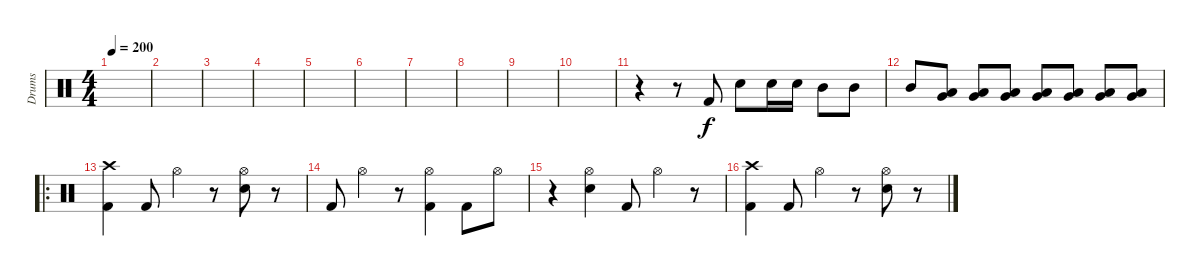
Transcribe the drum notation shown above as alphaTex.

\track ("Drums" "Drums") {instrument percussion}
\staff {score}
\articulation defaults
\ts (4 4)
\tempo 200
\clef neutral
\ks c
|
|
|
|
|
|
|
|
|
|
r.4 r.8 "Kick (hit) 2".8 "Snare (hit) 2".8 "Snare (hit) 2".16 "Snare (hit) 2".16 "Mid Tom (hit)".8 "Mid Tom (hit)".8 |
"Mid Tom (hit)".8 ("Low Tom (hit)" "Very Low Tom (hit)").8 ("Low Tom (hit)" "Very Low Tom (hit)").8 ("Low Tom (hit)" "Very Low Tom (hit)").8 ("Low Tom (hit)" "Very Low Tom (hit)").8 ("Very Low Tom (hit)" "Low Floor Tom (hit)").8 ("Very Low Tom (hit)" "Low Floor Tom (hit)").8 ("Very Low Tom (hit)" "Low Floor Tom (hit)").8 |
\ro
("Crash high (hit)" "Kick (hit) 2").4 "Kick (hit) 2".8 "Hi-Hat (open)".4 r.8 ("Hi-Hat (open)" "Snare (hit) 2").8 r.8 |
"Kick (hit) 2".8 "Hi-Hat (open)".4 r.8 ("Hi-Hat (open)" "Kick (hit) 2").4 "Kick (hit) 2".8 "Hi-Hat (open)".8 |
r.4 ("Hi-Hat (open)" "Snare (hit) 2").4 "Kick (hit) 2".8 "Hi-Hat (open)".4 r.8 |
("Crash high (hit)" "Kick (hit) 2").4 "Kick (hit) 2".8 "Hi-Hat (open)".4 r.8 ("Hi-Hat (open)" "Snare (hit) 2").8 r.8
